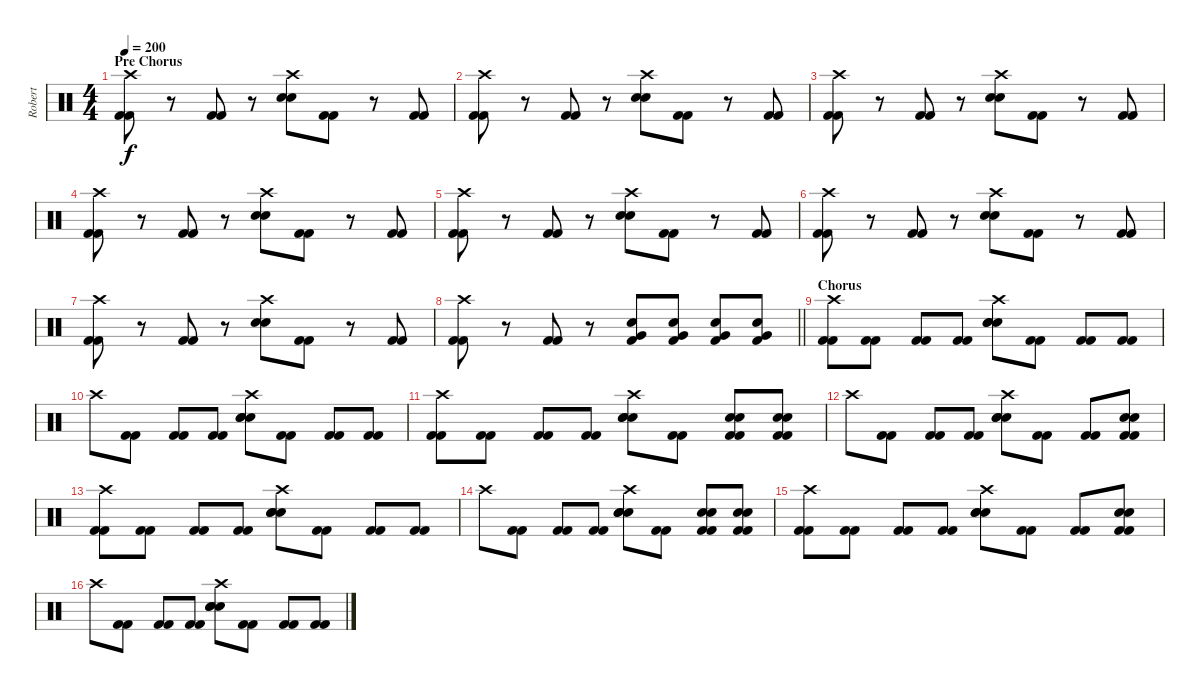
\track ("Robert" "Robert") {instrument percussion}
\staff {score}
\articulation defaults
\ts (4 4)
\section ("" "Pre Chorus")
\tempo 200
\clef neutral
\ks c
("Crash high (hit)" "Kick (hit) 2" "Kick (hit) 2").8{dy f} r.8 ("Kick (hit) 2" "Kick (hit) 2").8 r.8 ("Crash high (hit)" "Electric Snare (hit)" "Electric Snare (hit)").8 ("Kick (hit) 2" "Kick (hit) 2").8 r.8 ("Kick (hit) 2" "Kick (hit) 2").8 |
("Crash high (hit)" "Kick (hit) 2" "Kick (hit) 2").8 r.8 ("Kick (hit) 2" "Kick (hit) 2").8 r.8 ("Crash high (hit)" "Electric Snare (hit)" "Electric Snare (hit)").8 ("Kick (hit) 2" "Kick (hit) 2").8 r.8 ("Kick (hit) 2" "Kick (hit) 2").8 |
("Crash high (hit)" "Kick (hit) 2" "Kick (hit) 2").8 r.8 ("Kick (hit) 2" "Kick (hit) 2").8 r.8 ("Crash high (hit)" "Electric Snare (hit)" "Electric Snare (hit)").8 ("Kick (hit) 2" "Kick (hit) 2").8 r.8 ("Kick (hit) 2" "Kick (hit) 2").8 |
("Crash high (hit)" "Kick (hit) 2" "Kick (hit) 2").8 r.8 ("Kick (hit) 2" "Kick (hit) 2").8 r.8 ("Crash high (hit)" "Electric Snare (hit)" "Electric Snare (hit)").8 ("Kick (hit) 2" "Kick (hit) 2").8 r.8 ("Kick (hit) 2" "Kick (hit) 2").8 |
("Crash high (hit)" "Kick (hit) 2" "Kick (hit) 2").8 r.8 ("Kick (hit) 2" "Kick (hit) 2").8 r.8 ("Crash high (hit)" "Electric Snare (hit)" "Electric Snare (hit)").8 ("Kick (hit) 2" "Kick (hit) 2").8 r.8 ("Kick (hit) 2" "Kick (hit) 2").8 |
("Crash high (hit)" "Kick (hit) 2" "Kick (hit) 2").8 r.8 ("Kick (hit) 2" "Kick (hit) 2").8 r.8 ("Crash high (hit)" "Electric Snare (hit)" "Electric Snare (hit)").8 ("Kick (hit) 2" "Kick (hit) 2").8 r.8 ("Kick (hit) 2" "Kick (hit) 2").8 |
("Crash high (hit)" "Kick (hit) 2" "Kick (hit) 2").8 r.8 ("Kick (hit) 2" "Kick (hit) 2").8 r.8 ("Crash high (hit)" "Electric Snare (hit)" "Electric Snare (hit)").8 ("Kick (hit) 2" "Kick (hit) 2").8 r.8 ("Kick (hit) 2" "Kick (hit) 2").8 |
\barLineRight lightlight
("Crash high (hit)" "Kick (hit) 2" "Kick (hit) 2").8 r.8 ("Kick (hit) 2" "Kick (hit) 2").8 r.8 ("Electric Snare (hit)" "Very Low Tom (hit)" "Kick (hit) 2").8 ("Electric Snare (hit)" "Very Low Tom (hit)" "Kick (hit) 2").8 ("Electric Snare (hit)" "Very Low Tom (hit)" "Kick (hit) 2").8 ("Electric Snare (hit)" "Very Low Tom (hit)" "Kick (hit) 2").8 |
\section ("" "Chorus")
("Crash high (hit)" "Kick (hit) 2" "Kick (hit) 2").8 ("Kick (hit) 2" "Kick (hit) 2").8 ("Kick (hit) 2" "Kick (hit) 2").8 ("Kick (hit) 2" "Kick (hit) 2").8 ("Crash high (hit)" "Electric Snare (hit)" "Electric Snare (hit)" "Electric Snare (hit)").8 ("Kick (hit) 2" "Kick (hit) 2").8 ("Kick (hit) 2" "Kick (hit) 2").8 ("Kick (hit) 2" "Kick (hit) 2").8 |
"Crash high (hit)".8 ("Kick (hit) 2" "Kick (hit) 2").8 ("Kick (hit) 2" "Kick (hit) 2").8 ("Kick (hit) 2" "Kick (hit) 2").8 ("Crash high (hit)" "Electric Snare (hit)" "Electric Snare (hit)" "Electric Snare (hit)").8 ("Kick (hit) 2" "Kick (hit) 2").8 ("Kick (hit) 2" "Kick (hit) 2").8 ("Kick (hit) 2" "Kick (hit) 2").8 |
("Crash high (hit)" "Kick (hit) 2" "Kick (hit) 2").8 ("Kick (hit) 2" "Kick (hit) 2").8 ("Kick (hit) 2" "Kick (hit) 2").8 ("Kick (hit) 2" "Kick (hit) 2").8 ("Crash high (hit)" "Electric Snare (hit)" "Electric Snare (hit)" "Electric Snare (hit)").8 ("Kick (hit) 2" "Kick (hit) 2").8 ("Electric Snare (hit)" "Electric Snare (hit)" "Kick (hit) 2" "Kick (hit) 2").8 ("Electric Snare (hit)" "Electric Snare (hit)" "Kick (hit) 2" "Kick (hit) 2").8 |
"Crash high (hit)".8 ("Kick (hit) 2" "Kick (hit) 2").8 ("Kick (hit) 2" "Kick (hit) 2").8 ("Kick (hit) 2" "Kick (hit) 2").8 ("Crash high (hit)" "Electric Snare (hit)" "Electric Snare (hit)" "Electric Snare (hit)").8 ("Kick (hit) 2" "Kick (hit) 2").8 ("Kick (hit) 2" "Kick (hit) 2").8 ("Electric Snare (hit)" "Electric Snare (hit)" "Kick (hit) 2" "Kick (hit) 2").8 |
("Crash high (hit)" "Kick (hit) 2" "Kick (hit) 2").8 ("Kick (hit) 2" "Kick (hit) 2").8 ("Kick (hit) 2" "Kick (hit) 2").8 ("Kick (hit) 2" "Kick (hit) 2").8 ("Crash high (hit)" "Electric Snare (hit)" "Electric Snare (hit)" "Electric Snare (hit)").8 ("Kick (hit) 2" "Kick (hit) 2").8 ("Kick (hit) 2" "Kick (hit) 2").8 ("Kick (hit) 2" "Kick (hit) 2").8 |
"Crash high (hit)".8 ("Kick (hit) 2" "Kick (hit) 2").8 ("Kick (hit) 2" "Kick (hit) 2").8 ("Kick (hit) 2" "Kick (hit) 2").8 ("Crash high (hit)" "Electric Snare (hit)" "Electric Snare (hit)" "Electric Snare (hit)").8 ("Kick (hit) 2" "Kick (hit) 2").8 ("Electric Snare (hit)" "Electric Snare (hit)" "Kick (hit) 2" "Kick (hit) 2").8 ("Electric Snare (hit)" "Electric Snare (hit)" "Kick (hit) 2" "Kick (hit) 2").8 |
("Crash high (hit)" "Kick (hit) 2" "Kick (hit) 2").8 ("Kick (hit) 2" "Kick (hit) 2").8 ("Kick (hit) 2" "Kick (hit) 2").8 ("Kick (hit) 2" "Kick (hit) 2").8 ("Crash high (hit)" "Electric Snare (hit)" "Electric Snare (hit)" "Electric Snare (hit)").8 ("Kick (hit) 2" "Kick (hit) 2").8 ("Kick (hit) 2" "Kick (hit) 2").8 ("Electric Snare (hit)" "Electric Snare (hit)" "Kick (hit) 2" "Kick (hit) 2").8 |
"Crash high (hit)".8 ("Kick (hit) 2" "Kick (hit) 2").8 ("Kick (hit) 2" "Kick (hit) 2").8 ("Kick (hit) 2" "Kick (hit) 2").8 ("Crash high (hit)" "Electric Snare (hit)" "Electric Snare (hit)" "Electric Snare (hit)").8 ("Kick (hit) 2" "Kick (hit) 2").8 ("Kick (hit) 2" "Kick (hit) 2").8 ("Kick (hit) 2" "Kick (hit) 2").8
